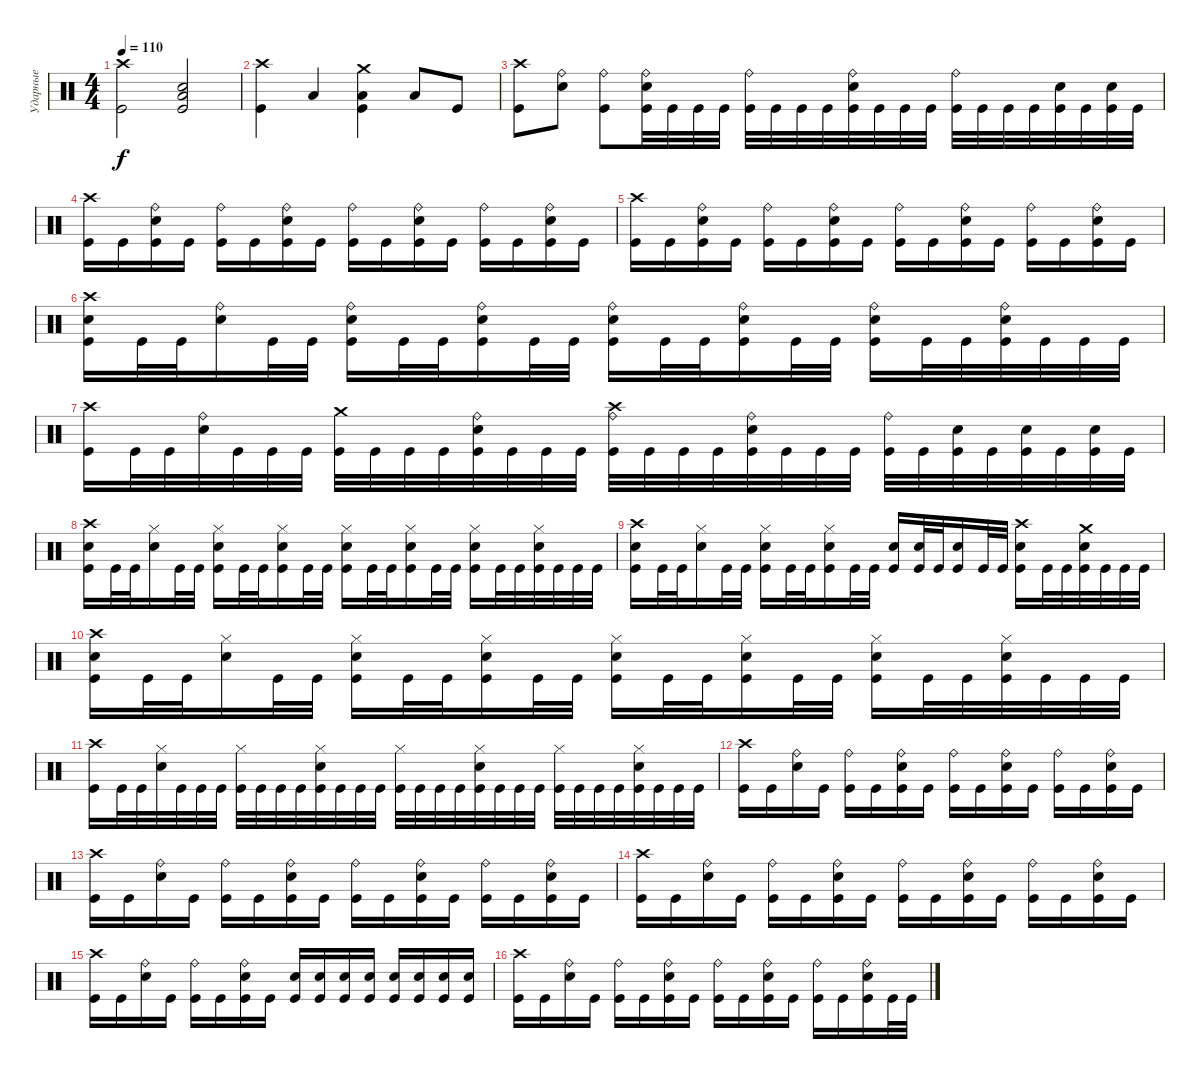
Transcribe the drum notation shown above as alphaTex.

\track ("Ударные" "Ударные") {instrument percussion}
\staff {score}
\articulation defaults
\ts (4 4)
\tempo 110
\clef neutral
\ks c
("Crash high (hit)" "Kick (hit)").2{dy f} ("Electric Snare (hit)" "Low Tom (hit)" "Kick (hit)").2 |
("Crash high (hit)" "Kick (hit)").4 "Low Tom (hit)".4 ("Crash medium (hit)" "Low Tom (hit)" "Kick (hit)").4 "Low Tom (hit)".8 "Kick (hit)".8 |
("Crash high (hit)" "Kick (hit)").8 ("Ride (bell)" "Electric Snare (hit)").8 ("Ride (bell)" "Kick (hit)").8 ("Ride (bell)" "Electric Snare (hit)" "Kick (hit)").32 "Kick (hit)".32 "Kick (hit)".32 "Kick (hit)".32 ("Ride (bell)" "Kick (hit)").32 "Kick (hit)".32 "Kick (hit)".32 "Kick (hit)".32 ("Ride (bell)" "Electric Snare (hit)" "Kick (hit)").32 "Kick (hit)".32 "Kick (hit)".32 "Kick (hit)".32 ("Ride (bell)" "Kick (hit)").32 "Kick (hit)".32 "Kick (hit)".32 "Kick (hit)".32 ("Electric Snare (hit)" "Kick (hit)").32 "Kick (hit)".32 ("Electric Snare (hit)" "Kick (hit)").32 "Kick (hit)".32 |
("Crash high (hit)" "Kick (hit)").16 "Kick (hit)".16 ("Ride (bell)" "Electric Snare (hit)" "Kick (hit)").16 "Kick (hit)".16 ("Ride (bell)" "Kick (hit)").16 "Kick (hit)".16 ("Ride (bell)" "Electric Snare (hit)" "Kick (hit)").16 "Kick (hit)".16 ("Ride (bell)" "Kick (hit)").16 "Kick (hit)".16 ("Ride (bell)" "Electric Snare (hit)" "Kick (hit)").16 "Kick (hit)".16 ("Ride (bell)" "Kick (hit)").16 "Kick (hit)".16 ("Ride (bell)" "Electric Snare (hit)" "Kick (hit)").16 "Kick (hit)".16 |
("Crash high (hit)" "Kick (hit)").16 "Kick (hit)".16 ("Ride (bell)" "Electric Snare (hit)" "Kick (hit)").16 "Kick (hit)".16 ("Ride (bell)" "Kick (hit)").16 "Kick (hit)".16 ("Ride (bell)" "Electric Snare (hit)" "Kick (hit)").16 "Kick (hit)".16 ("Ride (bell)" "Kick (hit)").16 "Kick (hit)".16 ("Ride (bell)" "Electric Snare (hit)" "Kick (hit)").16 "Kick (hit)".16 ("Ride (bell)" "Kick (hit)").16 "Kick (hit)".16 ("Ride (bell)" "Electric Snare (hit)" "Kick (hit)").16 "Kick (hit)".16 |
("Crash high (hit)" "Electric Snare (hit)" "Kick (hit)").16 "Kick (hit)".32 "Kick (hit)".32 ("Ride (bell)" "Electric Snare (hit)").16 "Kick (hit)".32 "Kick (hit)".32 ("Ride (bell)" "Electric Snare (hit)" "Kick (hit)").16 "Kick (hit)".32 "Kick (hit)".32 ("Ride (bell)" "Electric Snare (hit)" "Kick (hit)").16 "Kick (hit)".32 "Kick (hit)".32 ("Ride (bell)" "Electric Snare (hit)" "Kick (hit)").16 "Kick (hit)".32 "Kick (hit)".32 ("Ride (bell)" "Electric Snare (hit)" "Kick (hit)").16 "Kick (hit)".32 "Kick (hit)".32 ("Ride (bell)" "Electric Snare (hit)" "Kick (hit)").16 "Kick (hit)".32 "Kick (hit)".32 ("Ride (bell)" "Electric Snare (hit)" "Kick (hit)").32 "Kick (hit)".32 "Kick (hit)".32 "Kick (hit)".32 |
("Crash high (hit)" "Kick (hit)").16 "Kick (hit)".32 "Kick (hit)".32 ("Ride (bell)" "Electric Snare (hit)").32 "Kick (hit)".32 "Kick (hit)".32 "Kick (hit)".32 ("Crash medium (hit)" "Kick (hit)").32 "Kick (hit)".32 "Kick (hit)".32 "Kick (hit)".32 ("Ride (bell)" "Electric Snare (hit)" "Kick (hit)").32 "Kick (hit)".32 "Kick (hit)".32 "Kick (hit)".32 ("Crash high (hit)" "Ride (bell)" "Kick (hit)").32 "Kick (hit)".32 "Kick (hit)".32 "Kick (hit)".32 ("Ride (bell)" "Electric Snare (hit)" "Kick (hit)").32 "Kick (hit)".32 "Kick (hit)".32 "Kick (hit)".32 ("Ride (bell)" "Kick (hit)").32 "Kick (hit)".32 ("Electric Snare (hit)" "Kick (hit)").32 "Kick (hit)".32 ("Electric Snare (hit)" "Kick (hit)").32 "Kick (hit)".32 ("Electric Snare (hit)" "Kick (hit)").32 "Kick (hit)".32 |
("Crash high (hit)" "Electric Snare (hit)" "Kick (hit)").16 "Kick (hit)".32 "Kick (hit)".32 ("Hi-Hat (closed)" "Electric Snare (hit)").16 "Kick (hit)".32 "Kick (hit)".32 ("Hi-Hat (closed)" "Electric Snare (hit)" "Kick (hit)").16 "Kick (hit)".32 "Kick (hit)".32 ("Hi-Hat (closed)" "Electric Snare (hit)" "Kick (hit)").16 "Kick (hit)".32 "Kick (hit)".32 ("Hi-Hat (closed)" "Electric Snare (hit)" "Kick (hit)").16 "Kick (hit)".32 "Kick (hit)".32 ("Hi-Hat (closed)" "Electric Snare (hit)" "Kick (hit)").16 "Kick (hit)".32 "Kick (hit)".32 ("Hi-Hat (closed)" "Electric Snare (hit)" "Kick (hit)").16 "Kick (hit)".32 "Kick (hit)".32 ("Hi-Hat (closed)" "Electric Snare (hit)" "Kick (hit)").32 "Kick (hit)".32 "Kick (hit)".32 "Kick (hit)".32 |
("Crash high (hit)" "Electric Snare (hit)" "Kick (hit)").16 "Kick (hit)".32 "Kick (hit)".32 ("Hi-Hat (closed)" "Electric Snare (hit)").16 "Kick (hit)".32 "Kick (hit)".32 ("Hi-Hat (closed)" "Electric Snare (hit)" "Kick (hit)").16 "Kick (hit)".32 "Kick (hit)".32 ("Hi-Hat (closed)" "Electric Snare (hit)" "Kick (hit)").16 "Kick (hit)".32 "Kick (hit)".32 ("Electric Snare (hit)" "Kick (hit)").16 ("Electric Snare (hit)" "Kick (hit)").32 "Kick (hit)".32 ("Electric Snare (hit)" "Kick (hit)").16 "Kick (hit)".32 "Kick (hit)".32 ("Crash high (hit)" "Electric Snare (hit)" "Kick (hit)").16 "Kick (hit)".32 "Kick (hit)".32 ("Crash medium (hit)" "Electric Snare (hit)" "Kick (hit)").32 "Kick (hit)".32 "Kick (hit)".32 "Kick (hit)".32 |
("Crash high (hit)" "Electric Snare (hit)" "Kick (hit)").16 "Kick (hit)".32 "Kick (hit)".32 ("Hi-Hat (closed)" "Electric Snare (hit)").16 "Kick (hit)".32 "Kick (hit)".32 ("Hi-Hat (closed)" "Electric Snare (hit)" "Kick (hit)").16 "Kick (hit)".32 "Kick (hit)".32 ("Hi-Hat (closed)" "Electric Snare (hit)" "Kick (hit)").16 "Kick (hit)".32 "Kick (hit)".32 ("Hi-Hat (closed)" "Electric Snare (hit)" "Kick (hit)").16 "Kick (hit)".32 "Kick (hit)".32 ("Hi-Hat (closed)" "Electric Snare (hit)" "Kick (hit)").16 "Kick (hit)".32 "Kick (hit)".32 ("Hi-Hat (closed)" "Electric Snare (hit)" "Kick (hit)").16 "Kick (hit)".32 "Kick (hit)".32 ("Hi-Hat (closed)" "Electric Snare (hit)" "Kick (hit)").32 "Kick (hit)".32 "Kick (hit)".32 "Kick (hit)".32 |
("Crash high (hit)" "Kick (hit)").16 "Kick (hit)".32 "Kick (hit)".32 ("Hi-Hat (closed)" "Electric Snare (hit)").32 "Kick (hit)".32 "Kick (hit)".32 "Kick (hit)".32 ("Hi-Hat (closed)" "Kick (hit)").32 "Kick (hit)".32 "Kick (hit)".32 "Kick (hit)".32 ("Hi-Hat (closed)" "Electric Snare (hit)" "Kick (hit)").32 "Kick (hit)".32 "Kick (hit)".32 "Kick (hit)".32 ("Hi-Hat (closed)" "Kick (hit)").32 "Kick (hit)".32 "Kick (hit)".32 "Kick (hit)".32 ("Hi-Hat (closed)" "Electric Snare (hit)" "Kick (hit)").32 "Kick (hit)".32 "Kick (hit)".32 "Kick (hit)".32 ("Hi-Hat (closed)" "Kick (hit)").32 "Kick (hit)".32 "Kick (hit)".32 "Kick (hit)".32 ("Hi-Hat (closed)" "Electric Snare (hit)" "Kick (hit)").32 "Kick (hit)".32 "Kick (hit)".32 "Kick (hit)".32 |
("Crash high (hit)" "Kick (hit)").16 "Kick (hit)".16 ("Ride (bell)" "Electric Snare (hit)").16 "Kick (hit)".16 ("Ride (bell)" "Kick (hit)").16 "Kick (hit)".16 ("Ride (bell)" "Electric Snare (hit)" "Kick (hit)").16 "Kick (hit)".16 ("Ride (bell)" "Kick (hit)").16 "Kick (hit)".16 ("Ride (bell)" "Electric Snare (hit)" "Kick (hit)").16 "Kick (hit)".16 ("Ride (bell)" "Kick (hit)").16 "Kick (hit)".16 ("Ride (bell)" "Electric Snare (hit)" "Kick (hit)").16 "Kick (hit)".16 |
("Crash high (hit)" "Kick (hit)").16 "Kick (hit)".16 ("Ride (bell)" "Electric Snare (hit)").16 "Kick (hit)".16 ("Ride (bell)" "Kick (hit)").16 "Kick (hit)".16 ("Ride (bell)" "Electric Snare (hit)" "Kick (hit)").16 "Kick (hit)".16 ("Ride (bell)" "Kick (hit)").16 "Kick (hit)".16 ("Ride (bell)" "Electric Snare (hit)" "Kick (hit)").16 "Kick (hit)".16 ("Ride (bell)" "Kick (hit)").16 "Kick (hit)".16 ("Ride (bell)" "Electric Snare (hit)" "Kick (hit)").16 "Kick (hit)".16 |
("Crash high (hit)" "Kick (hit)").16 "Kick (hit)".16 ("Ride (bell)" "Electric Snare (hit)").16 "Kick (hit)".16 ("Ride (bell)" "Kick (hit)").16 "Kick (hit)".16 ("Ride (bell)" "Electric Snare (hit)" "Kick (hit)").16 "Kick (hit)".16 ("Ride (bell)" "Kick (hit)").16 "Kick (hit)".16 ("Ride (bell)" "Electric Snare (hit)" "Kick (hit)").16 "Kick (hit)".16 ("Ride (bell)" "Kick (hit)").16 "Kick (hit)".16 ("Ride (bell)" "Electric Snare (hit)" "Kick (hit)").16 "Kick (hit)".16 |
("Crash high (hit)" "Kick (hit)").16 "Kick (hit)".16 ("Ride (bell)" "Electric Snare (hit)").16 "Kick (hit)".16 ("Ride (bell)" "Kick (hit)").16 "Kick (hit)".16 ("Ride (bell)" "Electric Snare (hit)" "Kick (hit)").16 "Kick (hit)".16 ("Electric Snare (hit)" "Kick (hit)").16 ("Electric Snare (hit)" "Kick (hit)").16 ("Electric Snare (hit)" "Kick (hit)").16 ("Electric Snare (hit)" "Kick (hit)").16 ("Electric Snare (hit)" "Kick (hit)").16 ("Electric Snare (hit)" "Kick (hit)").16 ("Electric Snare (hit)" "Kick (hit)").16 ("Electric Snare (hit)" "Kick (hit)").16 |
("Crash high (hit)" "Kick (hit)").16 "Kick (hit)".16 ("Ride (bell)" "Electric Snare (hit)").16 "Kick (hit)".16 ("Ride (bell)" "Kick (hit)").16 "Kick (hit)".16 ("Ride (bell)" "Electric Snare (hit)" "Kick (hit)").16 "Kick (hit)".16 ("Ride (bell)" "Kick (hit)").16 "Kick (hit)".16 ("Ride (bell)" "Electric Snare (hit)" "Kick (hit)").16 "Kick (hit)".16 ("Ride (bell)" "Kick (hit)").16 "Kick (hit)".16 ("Ride (bell)" "Electric Snare (hit)" "Kick (hit)").16 "Kick (hit)".32 "Kick (hit)".32
